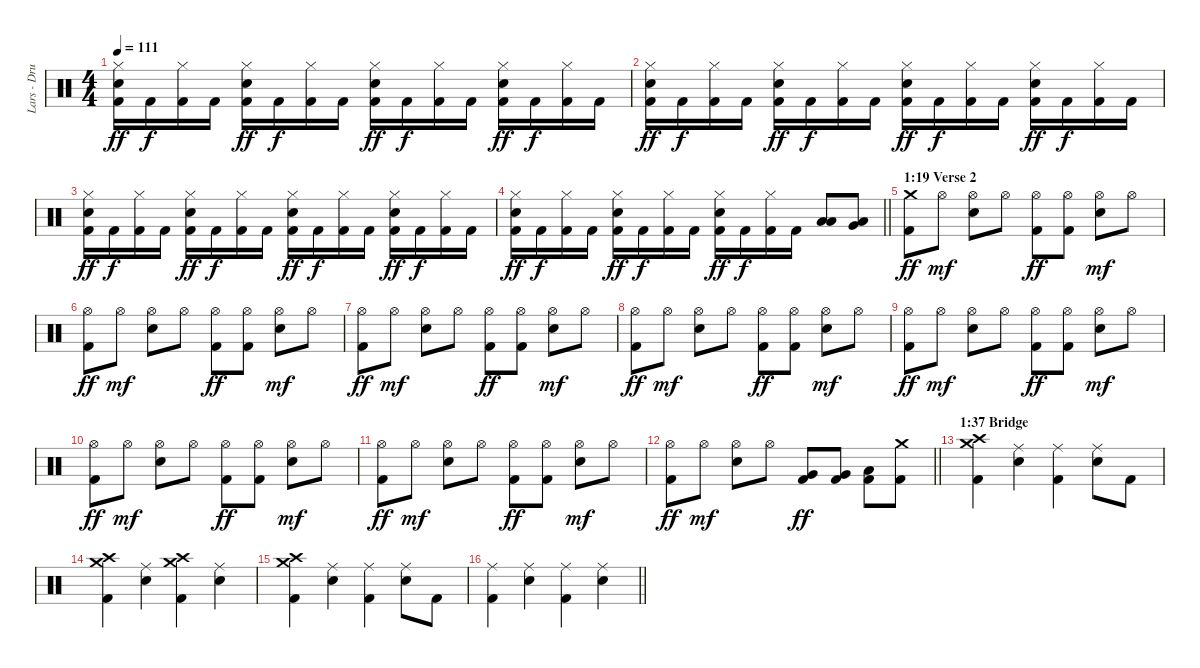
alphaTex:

\track ("Lars - Drums + tempi marker" "Lars - Dru") {instrument percussion}
\staff {score}
\articulation defaults
\ts (4 4)
\tempo 111
\clef neutral
\ks c
("Electric Snare (hit)" "Hi-Hat (closed)" "Kick (hit) 2").16{dy ff} "Kick (hit) 2".16{dy f} ("Hi-Hat (closed)" "Kick (hit) 2").16 "Kick (hit) 2".16 ("Electric Snare (hit)" "Hi-Hat (closed)" "Kick (hit) 2").16{dy ff} "Kick (hit) 2".16{dy f} ("Hi-Hat (closed)" "Kick (hit) 2").16 "Kick (hit) 2".16 ("Electric Snare (hit)" "Hi-Hat (closed)" "Kick (hit) 2").16{dy ff} "Kick (hit) 2".16{dy f} ("Hi-Hat (closed)" "Kick (hit) 2").16 "Kick (hit) 2".16 ("Electric Snare (hit)" "Hi-Hat (closed)" "Kick (hit) 2").16{dy ff} "Kick (hit) 2".16{dy f} ("Hi-Hat (closed)" "Kick (hit) 2").16 "Kick (hit) 2".16 |
("Electric Snare (hit)" "Hi-Hat (closed)" "Kick (hit) 2").16{dy ff} "Kick (hit) 2".16{dy f} ("Hi-Hat (closed)" "Kick (hit) 2").16 "Kick (hit) 2".16 ("Electric Snare (hit)" "Hi-Hat (closed)" "Kick (hit) 2").16{dy ff} "Kick (hit) 2".16{dy f} ("Hi-Hat (closed)" "Kick (hit) 2").16 "Kick (hit) 2".16 ("Electric Snare (hit)" "Hi-Hat (closed)" "Kick (hit) 2").16{dy ff} "Kick (hit) 2".16{dy f} ("Hi-Hat (closed)" "Kick (hit) 2").16 "Kick (hit) 2".16 ("Electric Snare (hit)" "Hi-Hat (closed)" "Kick (hit) 2").16{dy ff} "Kick (hit) 2".16{dy f} ("Hi-Hat (closed)" "Kick (hit) 2").16 "Kick (hit) 2".16 |
("Electric Snare (hit)" "Hi-Hat (closed)" "Kick (hit) 2").16{dy ff} "Kick (hit) 2".16{dy f} ("Hi-Hat (closed)" "Kick (hit) 2").16 "Kick (hit) 2".16 ("Electric Snare (hit)" "Hi-Hat (closed)" "Kick (hit) 2").16{dy ff} "Kick (hit) 2".16{dy f} ("Hi-Hat (closed)" "Kick (hit) 2").16 "Kick (hit) 2".16 ("Electric Snare (hit)" "Hi-Hat (closed)" "Kick (hit) 2").16{dy ff} "Kick (hit) 2".16{dy f} ("Hi-Hat (closed)" "Kick (hit) 2").16 "Kick (hit) 2".16 ("Electric Snare (hit)" "Hi-Hat (closed)" "Kick (hit) 2").16{dy ff} "Kick (hit) 2".16{dy f} ("Hi-Hat (closed)" "Kick (hit) 2").16 "Kick (hit) 2".16 |
\barLineRight lightlight
("Electric Snare (hit)" "Hi-Hat (closed)" "Kick (hit) 2").16{dy ff} "Kick (hit) 2".16{dy f} ("Hi-Hat (closed)" "Kick (hit) 2").16 "Kick (hit) 2".16 ("Electric Snare (hit)" "Hi-Hat (closed)" "Kick (hit) 2").16{dy ff} "Kick (hit) 2".16{dy f} ("Hi-Hat (closed)" "Kick (hit) 2").16 "Kick (hit) 2".16 ("Electric Snare (hit)" "Hi-Hat (closed)" "Kick (hit) 2").16{dy ff} "Kick (hit) 2".16{dy f} ("Hi-Hat (closed)" "Kick (hit) 2").16 "Kick (hit) 2".16 ("Low Tom (hit)" "Low Floor Tom (hit)").8 ("Very Low Tom (hit)" "Low Floor Tom (hit)").8 |
\section ("" "1:19 Verse 2")
("Crash medium (hit)" "Kick (hit) 2").8{dy ff} "Hi-Hat (open)".8{dy mf} ("Electric Snare (hit)" "Hi-Hat (open)").8 "Hi-Hat (open)".8 ("Hi-Hat (open)" "Kick (hit) 2").8{dy ff} ("Hi-Hat (open)" "Kick (hit) 2").8 ("Electric Snare (hit)" "Hi-Hat (open)").8{dy mf} "Hi-Hat (open)".8 |
("Hi-Hat (open)" "Kick (hit) 2").8{dy ff} "Hi-Hat (open)".8{dy mf} ("Electric Snare (hit)" "Hi-Hat (open)").8 "Hi-Hat (open)".8 ("Hi-Hat (open)" "Kick (hit) 2").8{dy ff} ("Hi-Hat (open)" "Kick (hit) 2").8 ("Electric Snare (hit)" "Hi-Hat (open)").8{dy mf} "Hi-Hat (open)".8 |
("Hi-Hat (open)" "Kick (hit) 2").8{dy ff} "Hi-Hat (open)".8{dy mf} ("Electric Snare (hit)" "Hi-Hat (open)").8 "Hi-Hat (open)".8 ("Hi-Hat (open)" "Kick (hit) 2").8{dy ff} ("Hi-Hat (open)" "Kick (hit) 2").8 ("Electric Snare (hit)" "Hi-Hat (open)").8{dy mf} "Hi-Hat (open)".8 |
("Hi-Hat (open)" "Kick (hit) 2").8{dy ff} "Hi-Hat (open)".8{dy mf} ("Electric Snare (hit)" "Hi-Hat (open)").8 "Hi-Hat (open)".8 ("Hi-Hat (open)" "Kick (hit) 2").8{dy ff} ("Hi-Hat (open)" "Kick (hit) 2").8 ("Electric Snare (hit)" "Hi-Hat (open)").8{dy mf} "Hi-Hat (open)".8 |
("Hi-Hat (open)" "Kick (hit) 2").8{dy ff} "Hi-Hat (open)".8{dy mf} ("Electric Snare (hit)" "Hi-Hat (open)").8 "Hi-Hat (open)".8 ("Hi-Hat (open)" "Kick (hit) 2").8{dy ff} ("Hi-Hat (open)" "Kick (hit) 2").8 ("Electric Snare (hit)" "Hi-Hat (open)").8{dy mf} "Hi-Hat (open)".8 |
("Hi-Hat (open)" "Kick (hit) 2").8{dy ff} "Hi-Hat (open)".8{dy mf} ("Electric Snare (hit)" "Hi-Hat (open)").8 "Hi-Hat (open)".8 ("Hi-Hat (open)" "Kick (hit) 2").8{dy ff} ("Hi-Hat (open)" "Kick (hit) 2").8 ("Electric Snare (hit)" "Hi-Hat (open)").8{dy mf} "Hi-Hat (open)".8 |
("Hi-Hat (open)" "Kick (hit) 2").8{dy ff} "Hi-Hat (open)".8{dy mf} ("Electric Snare (hit)" "Hi-Hat (open)").8 "Hi-Hat (open)".8 ("Hi-Hat (open)" "Kick (hit) 2").8{dy ff} ("Hi-Hat (open)" "Kick (hit) 2").8 ("Electric Snare (hit)" "Hi-Hat (open)").8{dy mf} "Hi-Hat (open)".8 |
\barLineRight lightlight
("Hi-Hat (open)" "Kick (hit) 2").8{dy ff} "Hi-Hat (open)".8{dy mf} ("Electric Snare (hit)" "Hi-Hat (open)").8 "Hi-Hat (open)".8 ("Very Low Tom (hit)" "Kick (hit) 2").8{dy ff} ("Very Low Tom (hit)" "Kick (hit) 2").8 ("Low Floor Tom (hit)" "Kick (hit) 2").8 ("Crash medium (hit)" "Kick (hit) 2").8 |
\section ("" "1:37 Bridge")
("Crash high (hit)" "Crash medium (hit)" "Kick (hit) 2").4 ("Electric Snare (hit)" "Ride (middle)").4 ("Ride (middle)" "Kick (hit) 2").4 ("Electric Snare (hit)" "Ride (middle)").8 "Kick (hit) 2".8 |
("Crash high (hit)" "Crash medium (hit)" "Kick (hit) 2").4 ("Electric Snare (hit)" "Ride (middle)").4 ("Crash high (hit)" "Crash medium (hit)" "Kick (hit) 2").4 ("Electric Snare (hit)" "Ride (middle)").4 |
("Crash high (hit)" "Crash medium (hit)" "Kick (hit) 2").4 ("Electric Snare (hit)" "Ride (middle)").4 ("Ride (middle)" "Kick (hit) 2").4 ("Electric Snare (hit)" "Ride (middle)").8 "Kick (hit) 2".8 |
\barLineRight lightlight
("Ride (middle)" "Kick (hit) 2").4 ("Electric Snare (hit)" "Ride (middle)").4 ("Ride (middle)" "Kick (hit) 2").4 ("Electric Snare (hit)" "Ride (middle)").4
